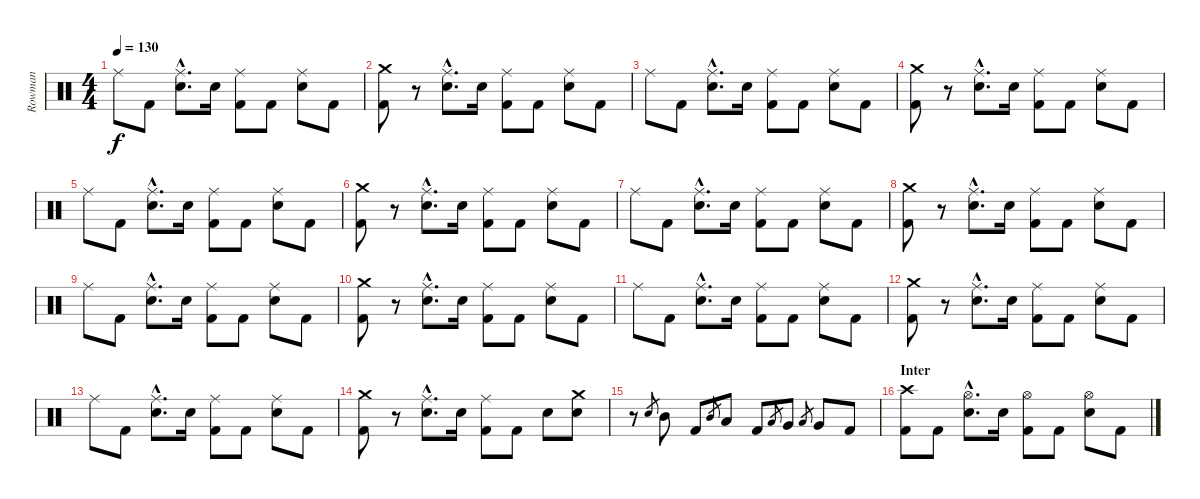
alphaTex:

\track ("Rowman" "Rowman") {instrument percussion}
\staff {score}
\articulation defaults
\ts (4 4)
\tempo 130
\clef neutral
\ks c "Ride (middle)".8{dy f} "Kick (hit) 2".8
("Electric Snare (hit)"{hac} "Ride (middle)"{hac}).8{d} "Electric Snare (hit)".16 ("Kick (hit) 2" "Ride (middle)").8 "Kick (hit) 2".8 ("Electric Snare (hit)" "Ride (middle)").8 "Kick (hit) 2".8 |
("Kick (hit) 2" "Crash medium (hit)").8 r.8 ("Electric Snare (hit)"{hac} "Ride (middle)"{hac}).8{d} "Electric Snare (hit)".16 ("Kick (hit) 2" "Ride (middle)").8 "Kick (hit) 2".8 ("Electric Snare (hit)" "Ride (middle)").8 "Kick (hit) 2".8 |
"Ride (middle)".8 "Kick (hit) 2".8 ("Electric Snare (hit)"{hac} "Ride (middle)"{hac}).8{d} "Electric Snare (hit)".16 ("Kick (hit) 2" "Ride (middle)").8 "Kick (hit) 2".8 ("Electric Snare (hit)" "Ride (middle)").8 "Kick (hit) 2".8 |
("Kick (hit) 2" "Crash medium (hit)").8 r.8 ("Electric Snare (hit)"{hac} "Ride (middle)"{hac}).8{d} "Electric Snare (hit)".16 ("Kick (hit) 2" "Ride (middle)").8 "Kick (hit) 2".8 ("Electric Snare (hit)" "Ride (middle)").8 "Kick (hit) 2".8 |
"Ride (middle)".8 "Kick (hit) 2".8 ("Electric Snare (hit)"{hac} "Ride (middle)"{hac}).8{d} "Electric Snare (hit)".16 ("Kick (hit) 2" "Ride (middle)").8 "Kick (hit) 2".8 ("Electric Snare (hit)" "Ride (middle)").8 "Kick (hit) 2".8 |
("Kick (hit) 2" "Crash medium (hit)").8 r.8 ("Electric Snare (hit)"{hac} "Ride (middle)"{hac}).8{d} "Electric Snare (hit)".16 ("Kick (hit) 2" "Ride (middle)").8 "Kick (hit) 2".8 ("Electric Snare (hit)" "Ride (middle)").8 "Kick (hit) 2".8 |
"Ride (middle)".8 "Kick (hit) 2".8 ("Electric Snare (hit)"{hac} "Ride (middle)"{hac}).8{d} "Electric Snare (hit)".16 ("Kick (hit) 2" "Ride (middle)").8 "Kick (hit) 2".8 ("Electric Snare (hit)" "Ride (middle)").8 "Kick (hit) 2".8 |
("Kick (hit) 2" "Crash medium (hit)").8 r.8 ("Electric Snare (hit)"{hac} "Ride (middle)"{hac}).8{d} "Electric Snare (hit)".16 ("Kick (hit) 2" "Ride (middle)").8 "Kick (hit) 2".8 ("Electric Snare (hit)" "Ride (middle)").8 "Kick (hit) 2".8 |
"Ride (middle)".8 "Kick (hit) 2".8 ("Electric Snare (hit)"{hac} "Ride (middle)"{hac}).8{d} "Electric Snare (hit)".16 ("Kick (hit) 2" "Ride (middle)").8 "Kick (hit) 2".8 ("Electric Snare (hit)" "Ride (middle)").8 "Kick (hit) 2".8 |
("Kick (hit) 2" "Crash medium (hit)").8 r.8 ("Electric Snare (hit)"{hac} "Ride (middle)"{hac}).8{d} "Electric Snare (hit)".16 ("Kick (hit) 2" "Ride (middle)").8 "Kick (hit) 2".8 ("Electric Snare (hit)" "Ride (middle)").8 "Kick (hit) 2".8 |
"Ride (middle)".8 "Kick (hit) 2".8 ("Electric Snare (hit)"{hac} "Ride (middle)"{hac}).8{d} "Electric Snare (hit)".16 ("Kick (hit) 2" "Ride (middle)").8 "Kick (hit) 2".8 ("Electric Snare (hit)" "Ride (middle)").8 "Kick (hit) 2".8 |
("Kick (hit) 2" "Crash medium (hit)").8 r.8 ("Electric Snare (hit)"{hac} "Ride (middle)"{hac}).8{d} "Electric Snare (hit)".16 ("Kick (hit) 2" "Ride (middle)").8 "Kick (hit) 2".8 ("Electric Snare (hit)" "Ride (middle)").8 "Kick (hit) 2".8 |
"Ride (middle)".8 "Kick (hit) 2".8 ("Electric Snare (hit)"{hac} "Ride (middle)"{hac}).8{d} "Electric Snare (hit)".16 ("Kick (hit) 2" "Ride (middle)").8 "Kick (hit) 2".8 ("Electric Snare (hit)" "Ride (middle)").8 "Kick (hit) 2".8 |
("Kick (hit) 2" "Crash medium (hit)").8 r.8 ("Electric Snare (hit)"{hac} "Ride (middle)"{hac}).8{d} "Electric Snare (hit)".16 ("Kick (hit) 2" "Ride (middle)").8 "Kick (hit) 2".8 "Electric Snare (hit)".8 ("Electric Snare (hit)" "Crash medium (hit)").8 |
r.8 "Electric Snare (hit)".8{gr} "Mid Tom (hit)".8 "Kick (hit) 2".8 "Mid Tom (hit)".8{gr} "Low Tom (hit)".8 "Kick (hit) 2".8 "Low Tom (hit)".8{gr} "Very Low Tom (hit)".8 "Low Tom (hit)".8{gr} "Very Low Tom (hit)".8 "Kick (hit) 2".8 |
\section ("" "Inter")
("Kick (hit) 2" "Crash high (hit)").8 "Kick (hit) 2".8 ("Electric Snare (hit)"{hac} "Hi-Hat (open)"{hac}).8{d} "Electric Snare (hit)".16 ("Kick (hit) 2" "Hi-Hat (open)").8 "Kick (hit) 2".8 ("Electric Snare (hit)" "Hi-Hat (open)").8 "Kick (hit) 2".8
